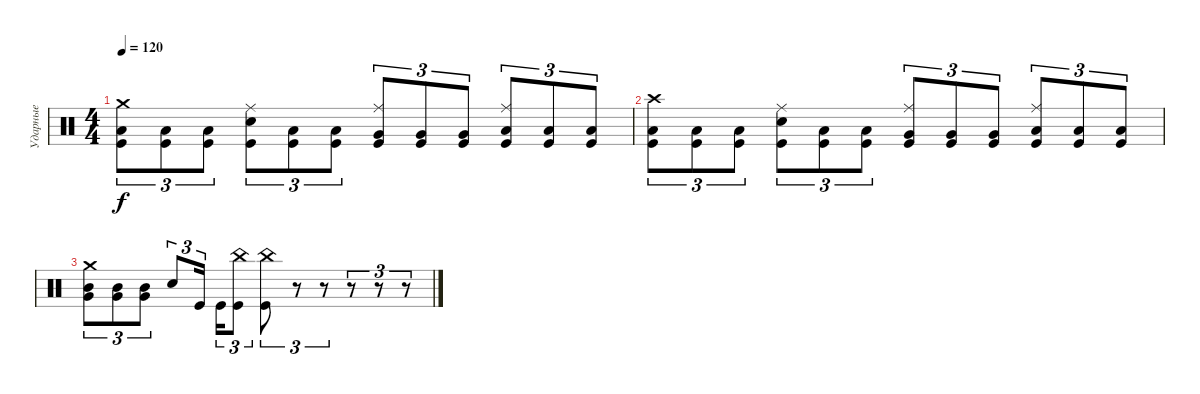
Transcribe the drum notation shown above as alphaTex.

\track ("Ударные" "Ударные") {instrument percussion}
\staff {score}
\articulation defaults
\ts (4 4)
\tempo 120
\clef neutral
\ks c
("Kick (hit)" "Low Floor Tom (hit)" "Crash medium (hit)").8{tu (3 2) dy f} ("Kick (hit)" "Low Floor Tom (hit)").8{tu (3 2)} ("Kick (hit)" "Low Floor Tom (hit)").8{tu (3 2)} ("Kick (hit)" "Electric Snare (hit)" "Ride (middle)").8{tu (3 2)} ("Kick (hit)" "Low Floor Tom (hit)").8{tu (3 2)} ("Kick (hit)" "Low Floor Tom (hit)").8{tu (3 2)} ("Kick (hit)" "Very Low Tom (hit)" "Ride (middle)").8{tu (3 2)} ("Kick (hit)" "Very Low Tom (hit)").8{tu (3 2)} ("Kick (hit)" "Very Low Tom (hit)").8{tu (3 2)} ("Kick (hit)" "Low Tom (hit)" "Ride (middle)").8{tu (3 2)} ("Kick (hit)" "Low Tom (hit)").8{tu (3 2)} ("Kick (hit)" "Low Tom (hit)").8{tu (3 2)} |
("Kick (hit)" "Low Floor Tom (hit)" "Crash high (hit)").8{tu (3 2)} ("Kick (hit)" "Low Floor Tom (hit)").8{tu (3 2)} ("Kick (hit)" "Low Floor Tom (hit)").8{tu (3 2)} ("Kick (hit)" "Electric Snare (hit)" "Ride (middle)").8{tu (3 2)} ("Kick (hit)" "Low Floor Tom (hit)").8{tu (3 2)} ("Kick (hit)" "Low Floor Tom (hit)").8{tu (3 2)} ("Kick (hit)" "Very Low Tom (hit)" "Ride (middle)").8{tu (3 2)} ("Kick (hit)" "Very Low Tom (hit)").8{tu (3 2)} ("Kick (hit)" "Very Low Tom (hit)").8{tu (3 2)} ("Kick (hit)" "Low Tom (hit)" "Ride (middle)").8{tu (3 2)} ("Kick (hit)" "Low Tom (hit)").8{tu (3 2)} ("Kick (hit)" "Low Tom (hit)").8{tu (3 2)} |
("Very Low Tom (hit)" "Mid Tom (hit)" "Crash medium (hit)").8{tu (3 2)} ("Very Low Tom (hit)" "Mid Tom (hit)").8{tu (3 2)} ("Very Low Tom (hit)" "Mid Tom (hit)").8{tu (3 2)} "Electric Snare (hit)".8{tu (3 2)} "Kick (hit)".16{tu (3 2) beam splitsecondary} "Kick (hit)".16{tu (3 2)} ("China (hit)" "Kick (hit)").8{tu (3 2)} ("China (hit)" "Kick (hit)").8{tu (3 2)} r.8{tu (3 2)} r.8{tu (3 2)} r.8{tu (3 2)} r.8{tu (3 2)} r.8{tu (3 2)}
